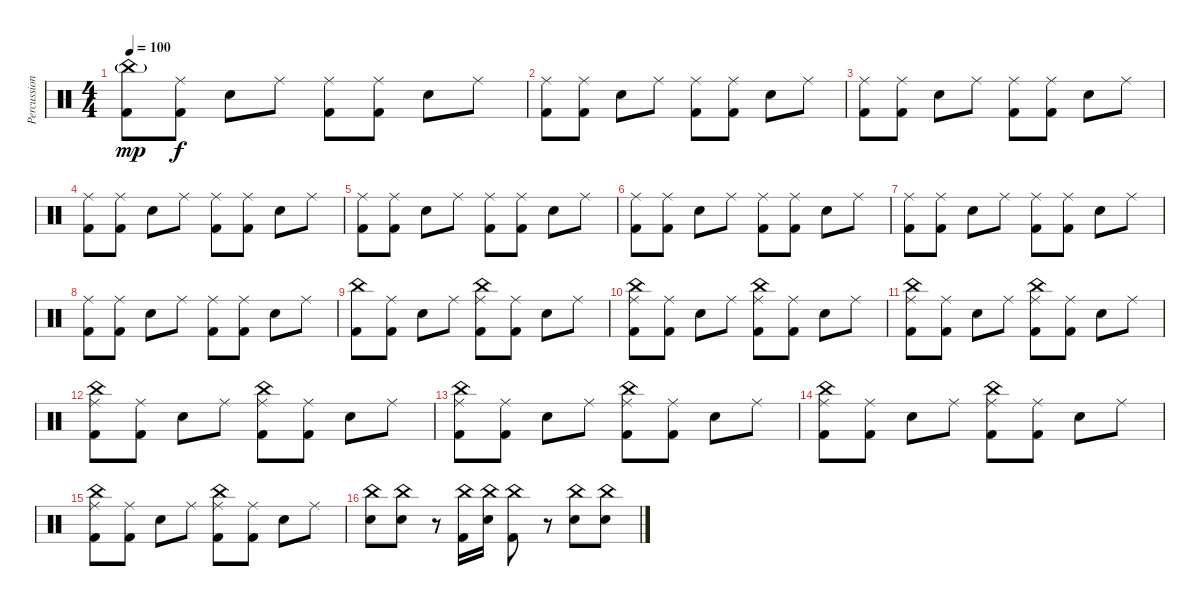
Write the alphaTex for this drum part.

\track ("Percussion" "Percussion") {instrument percussion}
\staff {score}
\articulation defaults
\ts (4 4)
\tempo 100
\clef neutral
\ks c
("China (hit)"{g} "Kick (hit) 2").8{dy mp} ("Ride (middle)" "Kick (hit) 2").8{dy f} "Electric Snare (hit)".8 "Ride (middle)".8 ("Ride (middle)" "Kick (hit) 2").8 ("Ride (middle)" "Kick (hit) 2").8 "Electric Snare (hit)".8 "Ride (middle)".8 |
("Ride (middle)" "Kick (hit) 2").8 ("Ride (middle)" "Kick (hit) 2").8 "Electric Snare (hit)".8 "Ride (middle)".8 ("Ride (middle)" "Kick (hit) 2").8 ("Ride (middle)" "Kick (hit) 2").8 "Electric Snare (hit)".8 "Ride (middle)".8 |
("Ride (middle)" "Kick (hit) 2").8 ("Ride (middle)" "Kick (hit) 2").8 "Electric Snare (hit)".8 "Ride (middle)".8 ("Ride (middle)" "Kick (hit) 2").8 ("Ride (middle)" "Kick (hit) 2").8 "Electric Snare (hit)".8 "Ride (middle)".8 |
("Ride (middle)" "Kick (hit) 2").8 ("Ride (middle)" "Kick (hit) 2").8 "Electric Snare (hit)".8 "Ride (middle)".8 ("Ride (middle)" "Kick (hit) 2").8 ("Ride (middle)" "Kick (hit) 2").8 "Electric Snare (hit)".8 "Ride (middle)".8 |
("Ride (middle)" "Kick (hit) 2").8 ("Ride (middle)" "Kick (hit) 2").8 "Electric Snare (hit)".8 "Ride (middle)".8 ("Ride (middle)" "Kick (hit) 2").8 ("Ride (middle)" "Kick (hit) 2").8 "Electric Snare (hit)".8 "Ride (middle)".8 |
("Ride (middle)" "Kick (hit) 2").8 ("Ride (middle)" "Kick (hit) 2").8 "Electric Snare (hit)".8 "Ride (middle)".8 ("Ride (middle)" "Kick (hit) 2").8 ("Ride (middle)" "Kick (hit) 2").8 "Electric Snare (hit)".8 "Ride (middle)".8 |
("Ride (middle)" "Kick (hit) 2").8 ("Ride (middle)" "Kick (hit) 2").8 "Electric Snare (hit)".8 "Ride (middle)".8 ("Ride (middle)" "Kick (hit) 2").8 ("Ride (middle)" "Kick (hit) 2").8 "Electric Snare (hit)".8 "Ride (middle)".8 |
("Ride (middle)" "Kick (hit) 2").8 ("Ride (middle)" "Kick (hit) 2").8 "Electric Snare (hit)".8 "Ride (middle)".8 ("Ride (middle)" "Kick (hit) 2").8 ("Ride (middle)" "Kick (hit) 2").8 "Electric Snare (hit)".8 "Ride (middle)".8 |
("China (hit)" "Kick (hit) 2").8 ("Ride (middle)" "Kick (hit) 2").8 "Electric Snare (hit)".8 "Ride (middle)".8 ("Ride (middle)" "China (hit)" "Kick (hit) 2").8 ("Ride (middle)" "Kick (hit) 2").8 "Electric Snare (hit)".8 "Ride (middle)".8 |
("Ride (middle)" "China (hit)" "Kick (hit) 2").8 ("Ride (middle)" "Kick (hit) 2").8 "Electric Snare (hit)".8 "Ride (middle)".8 ("Ride (middle)" "China (hit)" "Kick (hit) 2").8 ("Ride (middle)" "Kick (hit) 2").8 "Electric Snare (hit)".8 "Ride (middle)".8 |
("Ride (middle)" "China (hit)" "Kick (hit) 2").8 ("Ride (middle)" "Kick (hit) 2").8 "Electric Snare (hit)".8 "Ride (middle)".8 ("Ride (middle)" "China (hit)" "Kick (hit) 2").8 ("Ride (middle)" "Kick (hit) 2").8 "Electric Snare (hit)".8 "Ride (middle)".8 |
("Ride (middle)" "China (hit)" "Kick (hit) 2").8 ("Ride (middle)" "Kick (hit) 2").8 "Electric Snare (hit)".8 "Ride (middle)".8 ("Ride (middle)" "China (hit)" "Kick (hit) 2").8 ("Ride (middle)" "Kick (hit) 2").8 "Electric Snare (hit)".8 "Ride (middle)".8 |
("Ride (middle)" "China (hit)" "Kick (hit) 2").8 ("Ride (middle)" "Kick (hit) 2").8 "Electric Snare (hit)".8 "Ride (middle)".8 ("Ride (middle)" "China (hit)" "Kick (hit) 2").8 ("Ride (middle)" "Kick (hit) 2").8 "Electric Snare (hit)".8 "Ride (middle)".8 |
("Ride (middle)" "China (hit)" "Kick (hit) 2").8 ("Ride (middle)" "Kick (hit) 2").8 "Electric Snare (hit)".8 "Ride (middle)".8 ("Ride (middle)" "China (hit)" "Kick (hit) 2").8 ("Ride (middle)" "Kick (hit) 2").8 "Electric Snare (hit)".8 "Ride (middle)".8 |
("Ride (middle)" "China (hit)" "Kick (hit) 2").8 ("Ride (middle)" "Kick (hit) 2").8 "Electric Snare (hit)".8 "Ride (middle)".8 ("Ride (middle)" "China (hit)" "Kick (hit) 2").8 ("Ride (middle)" "Kick (hit) 2").8 "Electric Snare (hit)".8 "Ride (middle)".8 |
("China (hit)" "Electric Snare (hit)").8 ("China (hit)" "Electric Snare (hit)").8 r.8 ("China (hit)" "Kick (hit) 2").16 ("China (hit)" "Electric Snare (hit)").16 ("China (hit)" "Kick (hit) 2").8 r.8 ("China (hit)" "Electric Snare (hit)").8 ("China (hit)" "Electric Snare (hit)").8
